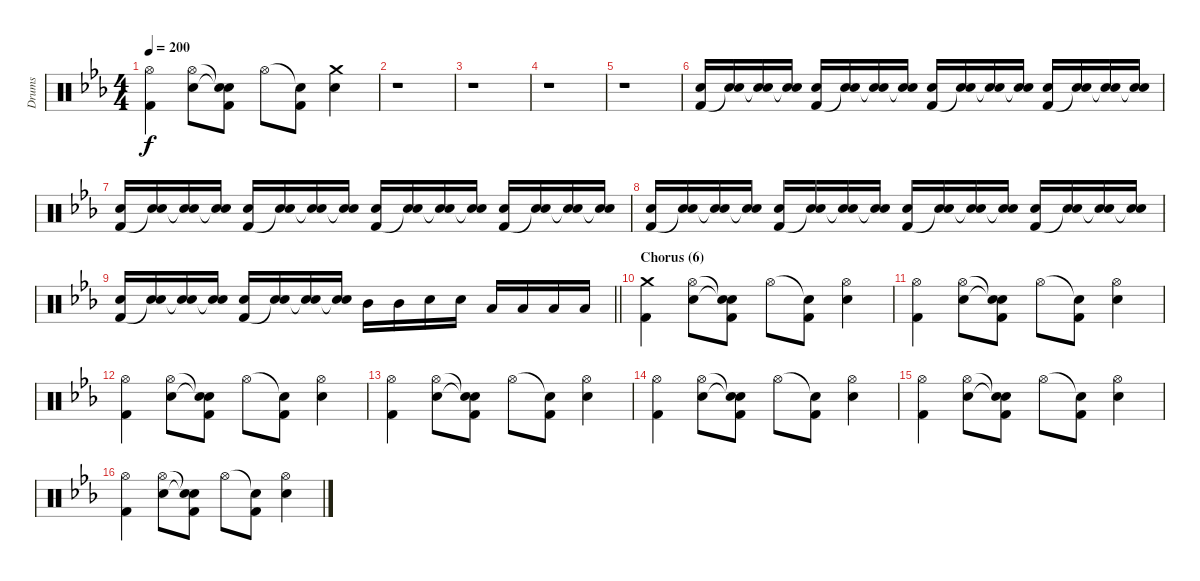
\track ("Drums" "Drums") {instrument percussion}
\staff {score}
\articulation defaults
\ts (4 4)
\tempo 200
\clef neutral
\ks cminor
("Hi-Hat (open)" "Kick (hit) 2").4{dy f} ("Hi-Hat (open)" "Electric Snare (hit)").8 ("Snare (hit)"{t} "Snare (hit)"{t} "Kick (hit) 2").8 "Hi-Hat (open)".8 ("Snare (hit)"{t} "Kick (hit) 2").8 ("Crash medium (hit)" "Electric Snare (hit)").4 |
r.1 |
r.1 |
r.1 |
r.1 |
("Electric Snare (hit)" "Kick (hit) 2").16 ("Electric Snare (hit)" "Snare (hit)"{t}).16 ("Electric Snare (hit)" "Snare (hit)"{t}).16 ("Electric Snare (hit)" "Snare (hit)"{t}).16 ("Electric Snare (hit)" "Kick (hit) 2").16 ("Electric Snare (hit)" "Snare (hit)"{t}).16 ("Electric Snare (hit)" "Snare (hit)"{t}).16 ("Electric Snare (hit)" "Snare (hit)"{t}).16 ("Electric Snare (hit)" "Kick (hit) 2").16 ("Electric Snare (hit)" "Snare (hit)"{t}).16 ("Electric Snare (hit)" "Snare (hit)"{t}).16 ("Electric Snare (hit)" "Snare (hit)"{t}).16 ("Electric Snare (hit)" "Kick (hit) 2").16 ("Electric Snare (hit)" "Snare (hit)"{t}).16 ("Electric Snare (hit)" "Snare (hit)"{t}).16 ("Electric Snare (hit)" "Snare (hit)"{t}).16 |
("Electric Snare (hit)" "Kick (hit) 2").16 ("Electric Snare (hit)" "Snare (hit)"{t}).16 ("Electric Snare (hit)" "Snare (hit)"{t}).16 ("Electric Snare (hit)" "Snare (hit)"{t}).16 ("Electric Snare (hit)" "Kick (hit) 2").16 ("Electric Snare (hit)" "Snare (hit)"{t}).16 ("Electric Snare (hit)" "Snare (hit)"{t}).16 ("Electric Snare (hit)" "Snare (hit)"{t}).16 ("Electric Snare (hit)" "Kick (hit) 2").16 ("Electric Snare (hit)" "Snare (hit)"{t}).16 ("Electric Snare (hit)" "Snare (hit)"{t}).16 ("Electric Snare (hit)" "Snare (hit)"{t}).16 ("Electric Snare (hit)" "Kick (hit) 2").16 ("Electric Snare (hit)" "Snare (hit)"{t}).16 ("Electric Snare (hit)" "Snare (hit)"{t}).16 ("Electric Snare (hit)" "Snare (hit)"{t}).16 |
("Electric Snare (hit)" "Kick (hit) 2").16 ("Electric Snare (hit)" "Snare (hit)"{t}).16 ("Electric Snare (hit)" "Snare (hit)"{t}).16 ("Electric Snare (hit)" "Snare (hit)"{t}).16 ("Electric Snare (hit)" "Kick (hit) 2").16 ("Electric Snare (hit)" "Snare (hit)"{t}).16 ("Electric Snare (hit)" "Snare (hit)"{t}).16 ("Electric Snare (hit)" "Snare (hit)"{t}).16 ("Electric Snare (hit)" "Kick (hit) 2").16 ("Electric Snare (hit)" "Snare (hit)"{t}).16 ("Electric Snare (hit)" "Snare (hit)"{t}).16 ("Electric Snare (hit)" "Snare (hit)"{t}).16 ("Electric Snare (hit)" "Kick (hit) 2").16 ("Electric Snare (hit)" "Snare (hit)"{t}).16 ("Electric Snare (hit)" "Snare (hit)"{t}).16 ("Electric Snare (hit)" "Snare (hit)"{t}).16 |
\barLineRight lightlight
("Electric Snare (hit)" "Kick (hit) 2").16 ("Electric Snare (hit)" "Snare (hit)"{t}).16 ("Electric Snare (hit)" "Snare (hit)"{t}).16 ("Electric Snare (hit)" "Snare (hit)"{t}).16 ("Electric Snare (hit)" "Kick (hit) 2").16 ("Electric Snare (hit)" "Snare (hit)"{t}).16 ("Electric Snare (hit)" "Snare (hit)"{t}).16 ("Electric Snare (hit)" "Snare (hit)"{t}).16 "Mid Tom (hit)".16 "Mid Tom (hit)".16 "Electric Snare (hit)".16 "Electric Snare (hit)".16 "Low Floor Tom (hit)".16 "Low Floor Tom (hit)".16 "Low Floor Tom (hit)".16 "Low Floor Tom (hit)".16 |
\section ("" "Chorus (6)")
("Crash medium (hit)" "Kick (hit) 2").4 ("Hi-Hat (open)" "Electric Snare (hit)").8 ("Snare (hit)"{t} "Snare (hit)"{t} "Kick (hit) 2").8 "Hi-Hat (open)".8 ("Snare (hit)"{t} "Kick (hit) 2").8 ("Hi-Hat (open)" "Electric Snare (hit)").4 |
("Hi-Hat (open)" "Kick (hit) 2").4 ("Hi-Hat (open)" "Electric Snare (hit)").8 ("Snare (hit)"{t} "Snare (hit)"{t} "Kick (hit) 2").8 "Hi-Hat (open)".8 ("Snare (hit)"{t} "Kick (hit) 2").8 ("Hi-Hat (open)" "Electric Snare (hit)").4 |
("Hi-Hat (open)" "Kick (hit) 2").4 ("Hi-Hat (open)" "Electric Snare (hit)").8 ("Snare (hit)"{t} "Snare (hit)"{t} "Kick (hit) 2").8 "Hi-Hat (open)".8 ("Snare (hit)"{t} "Kick (hit) 2").8 ("Hi-Hat (open)" "Electric Snare (hit)").4 |
("Hi-Hat (open)" "Kick (hit) 2").4 ("Hi-Hat (open)" "Electric Snare (hit)").8 ("Snare (hit)"{t} "Snare (hit)"{t} "Kick (hit) 2").8 "Hi-Hat (open)".8 ("Snare (hit)"{t} "Kick (hit) 2").8 ("Hi-Hat (open)" "Electric Snare (hit)").4 |
("Hi-Hat (open)" "Kick (hit) 2").4 ("Hi-Hat (open)" "Electric Snare (hit)").8 ("Snare (hit)"{t} "Snare (hit)"{t} "Kick (hit) 2").8 "Hi-Hat (open)".8 ("Snare (hit)"{t} "Kick (hit) 2").8 ("Hi-Hat (open)" "Electric Snare (hit)").4 |
("Hi-Hat (open)" "Kick (hit) 2").4 ("Hi-Hat (open)" "Electric Snare (hit)").8 ("Snare (hit)"{t} "Snare (hit)"{t} "Kick (hit) 2").8 "Hi-Hat (open)".8 ("Snare (hit)"{t} "Kick (hit) 2").8 ("Hi-Hat (open)" "Electric Snare (hit)").4 |
("Hi-Hat (open)" "Kick (hit) 2").4 ("Hi-Hat (open)" "Electric Snare (hit)").8 ("Snare (hit)"{t} "Snare (hit)"{t} "Kick (hit) 2").8 "Hi-Hat (open)".8 ("Snare (hit)"{t} "Kick (hit) 2").8 ("Hi-Hat (open)" "Electric Snare (hit)").4
